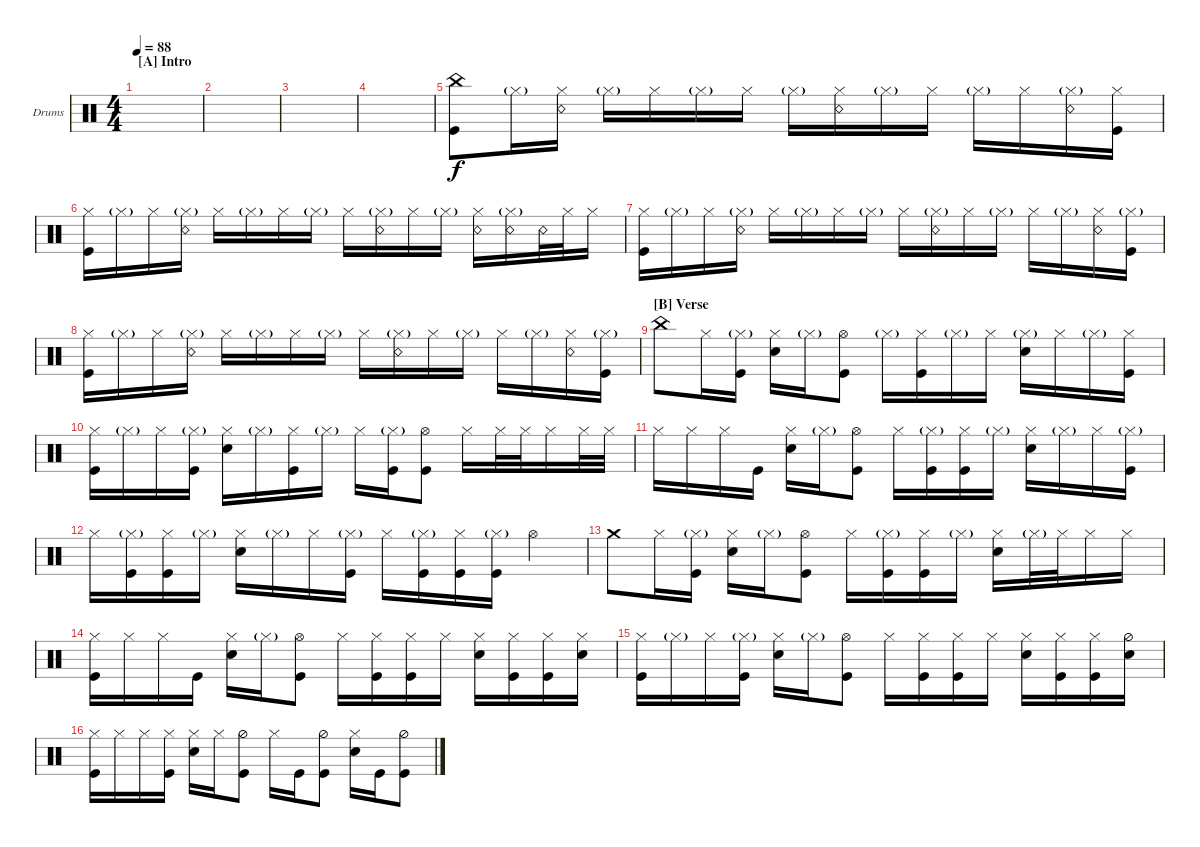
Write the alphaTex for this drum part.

\defaultSystemsLayout 4
\bracketExtendMode groupsimilarinstruments
\firstSystemTrackNameOrientation horizontal
\otherSystemsTrackNameOrientation horizontal
\track ("Drumkit" "Drums") {instrument percussion}
\staff {score}
\articulation defaults
\ts (4 4)
\section ("A" "Intro")
\tempo 88
\clef neutral
\scale
0.472222
\ks c
|
\scale
0.263889 |
\scale
0.263889 |
\scale
0.333333 |
\scale
0.333333 ("China (hit)" "Kick (hit)").8 "Hi-Hat (closed)"{g}.16 ("Hi-Hat (closed)" "Snare (rim shot)").16 "Hi-Hat (closed)"{g}.16 "Hi-Hat (closed)".16 "Hi-Hat (closed)"{g}.16 "Hi-Hat (closed)".16 "Hi-Hat (closed)"{g}.16 ("Hi-Hat (closed)" "Snare (rim shot)").16 "Hi-Hat (closed)"{g}.16 "Hi-Hat (closed)".16 "Hi-Hat (closed)"{g}.16 "Hi-Hat (closed)".16 ("Hi-Hat (closed)"{g} "Snare (rim shot)").16 ("Hi-Hat (closed)" "Kick (hit)").16 |
\scale
0.333333 ("Hi-Hat (closed)" "Kick (hit)").16 "Hi-Hat (closed)"{g}.16 "Hi-Hat (closed)".16 ("Hi-Hat (closed)"{g} "Snare (rim shot)").16 "Hi-Hat (closed)".16 "Hi-Hat (closed)"{g}.16 "Hi-Hat (closed)".16 "Hi-Hat (closed)"{g}.16 "Hi-Hat (closed)".16 ("Hi-Hat (closed)"{g} "Snare (rim shot)").16 "Hi-Hat (closed)".16 "Hi-Hat (closed)"{g}.16 ("Hi-Hat (closed)" "Snare (rim shot)").16 ("Hi-Hat (closed)"{g} "Snare (rim shot)").16 "Snare (rim shot)".32 "Hi-Hat (closed)".32 "Hi-Hat (closed)".16 |
\scale
0.333333 ("Hi-Hat (closed)" "Kick (hit)").16 "Hi-Hat (closed)"{g}.16 "Hi-Hat (closed)".16 ("Hi-Hat (closed)"{g} "Snare (rim shot)").16 "Hi-Hat (closed)".16 "Hi-Hat (closed)"{g}.16 "Hi-Hat (closed)".16 "Hi-Hat (closed)"{g}.16 "Hi-Hat (closed)".16 ("Hi-Hat (closed)"{g} "Snare (rim shot)").16 "Hi-Hat (closed)".16 "Hi-Hat (closed)"{g}.16 "Hi-Hat (closed)".16 "Hi-Hat (closed)"{g}.16 ("Hi-Hat (closed)" "Snare (rim shot)").16 ("Hi-Hat (closed)"{g} "Kick (hit)").16 |
\scale
0.333333 ("Hi-Hat (closed)" "Kick (hit)").16 "Hi-Hat (closed)"{g}.16 "Hi-Hat (closed)".16 ("Hi-Hat (closed)"{g} "Snare (rim shot)").16 "Hi-Hat (closed)".16 "Hi-Hat (closed)"{g}.16 "Hi-Hat (closed)".16 "Hi-Hat (closed)"{g}.16 "Hi-Hat (closed)".16 ("Hi-Hat (closed)"{g} "Snare (rim shot)").16 "Hi-Hat (closed)".16 "Hi-Hat (closed)"{g}.16 "Hi-Hat (closed)".16 "Hi-Hat (closed)"{g}.16 ("Hi-Hat (closed)" "Snare (rim shot)").16 ("Hi-Hat (closed)"{g} "Kick (hit)").16 |
\section ("B" "Verse")
\scale
0.333333 "China (hit)".8 "Hi-Hat (closed)".16 ("Hi-Hat (closed)"{g} "Kick (hit)").16 ("Hi-Hat (closed)" "Snare (hit) 2").16 "Hi-Hat (closed)"{g}.16 ("Hi-Hat (open)" "Kick (hit)").8 "Hi-Hat (closed)"{g}.16 ("Hi-Hat (closed)" "Kick (hit)").16 "Hi-Hat (closed)"{g}.16 "Hi-Hat (closed)".16 ("Hi-Hat (closed)"{g} "Snare (hit) 2").16 "Hi-Hat (closed)".16 "Hi-Hat (closed)"{g}.16 ("Hi-Hat (closed)" "Kick (hit)").16 |
\scale
0.333333 ("Hi-Hat (closed)" "Kick (hit)").16 "Hi-Hat (closed)"{g}.16 "Hi-Hat (closed)".16 ("Hi-Hat (closed)"{g} "Kick (hit)").16 ("Hi-Hat (closed)" "Snare (hit) 2").16 "Hi-Hat (closed)"{g}.16 ("Hi-Hat (closed)" "Kick (hit)").16 "Hi-Hat (closed)"{g}.16 "Hi-Hat (closed)".16 ("Hi-Hat (closed)"{g} "Kick (hit)").16 ("Hi-Hat (open)" "Kick (hit)").8 "Hi-Hat (closed)".16 "Hi-Hat (closed)".32 "Hi-Hat (closed)".32 "Hi-Hat (closed)".16 "Hi-Hat (closed)".32 "Hi-Hat (closed)".32 |
\scale
0.333333 "Hi-Hat (closed)".16 "Hi-Hat (closed)".16 "Hi-Hat (closed)".16 "Kick (hit)".16 ("Snare (hit) 2" "Hi-Hat (closed)").16 "Hi-Hat (closed)"{g}.16 ("Hi-Hat (open)" "Kick (hit)").8 "Hi-Hat (closed)".16 ("Hi-Hat (closed)"{g} "Kick (hit)").16 ("Hi-Hat (closed)" "Kick (hit)").16 "Hi-Hat (closed)"{g}.16 ("Hi-Hat (closed)" "Snare (hit) 2").16 "Hi-Hat (closed)"{g}.16 "Hi-Hat (closed)".16 ("Hi-Hat (closed)"{g} "Kick (hit)").16 |
\scale
0.333333 "Hi-Hat (closed)".16 ("Hi-Hat (closed)"{g} "Kick (hit)").16 ("Hi-Hat (closed)" "Kick (hit)").16 "Hi-Hat (closed)"{g}.16 ("Hi-Hat (closed)" "Snare (hit) 2").16 "Hi-Hat (closed)"{g}.16 "Hi-Hat (closed)".16 ("Hi-Hat (closed)"{g} "Kick (hit)").16 "Hi-Hat (closed)".16 ("Hi-Hat (closed)"{g} "Kick (hit)").16 ("Hi-Hat (closed)" "Kick (hit)").16 ("Hi-Hat (closed)"{g} "Kick (hit)").16 "Hi-Hat (open)".4 |
\scale
0.333333 "Crash medium (hit)".8 "Hi-Hat (closed)".16 ("Hi-Hat (closed)"{g} "Kick (hit)").16 ("Hi-Hat (closed)" "Snare (hit) 2").16 "Hi-Hat (closed)"{g}.16 ("Hi-Hat (open)" "Kick (hit)").8 "Hi-Hat (closed)".16 ("Hi-Hat (closed)"{g} "Kick (hit)").16 ("Hi-Hat (closed)" "Kick (hit)").16 "Hi-Hat (closed)"{g}.16 ("Hi-Hat (closed)" "Snare (hit) 2").16 "Hi-Hat (closed)"{g}.32 "Hi-Hat (closed)".32 "Hi-Hat (closed)".16 "Hi-Hat (closed)".16 |
\scale
0.333333 ("Hi-Hat (closed)" "Kick (hit)").16 "Hi-Hat (closed)".16 "Hi-Hat (closed)".16 "Kick (hit)".16 ("Hi-Hat (closed)" "Snare (hit) 2").16 "Hi-Hat (closed)"{g}.16 ("Hi-Hat (open)" "Kick (hit)").8 "Hi-Hat (closed)".16 ("Hi-Hat (closed)" "Kick (hit)").16 ("Hi-Hat (closed)" "Kick (hit)").16 "Hi-Hat (closed)".16 ("Hi-Hat (closed)" "Snare (hit) 2").16 ("Hi-Hat (closed)" "Kick (hit)").16 ("Hi-Hat (closed)" "Kick (hit)").16 ("Hi-Hat (closed)" "Snare (hit) 2").16 |
\scale
0.333333 ("Hi-Hat (closed)" "Kick (hit)").16 "Hi-Hat (closed)"{g}.16 "Hi-Hat (closed)".16 ("Hi-Hat (closed)"{g} "Kick (hit)").16 ("Hi-Hat (closed)" "Snare (hit) 2").16 "Hi-Hat (closed)"{g}.16 ("Hi-Hat (open)" "Kick (hit)").8 "Hi-Hat (closed)".16 ("Hi-Hat (closed)" "Kick (hit)").16 ("Hi-Hat (closed)" "Kick (hit)").16 "Hi-Hat (closed)".16 ("Hi-Hat (closed)" "Snare (hit) 2").16 ("Hi-Hat (closed)" "Kick (hit)").16 ("Hi-Hat (closed)" "Kick (hit)").16 ("Hi-Hat (half)" "Snare (hit) 2").16 |
\scale
0.333333 ("Hi-Hat (closed)" "Kick (hit)").16 "Hi-Hat (closed)".16 "Hi-Hat (closed)".16 ("Hi-Hat (closed)" "Kick (hit)").16 ("Hi-Hat (closed)" "Snare (hit) 2").16 "Hi-Hat (closed)".16 ("Hi-Hat (half)" "Kick (hit)").8 "Hi-Hat (closed)".16 "Kick (hit)".16 ("Kick (hit)" "Hi-Hat (half)").8 ("Hi-Hat (closed)" "Snare (hit) 2").16 "Kick (hit)".16 ("Kick (hit)" "Hi-Hat (half)").8
